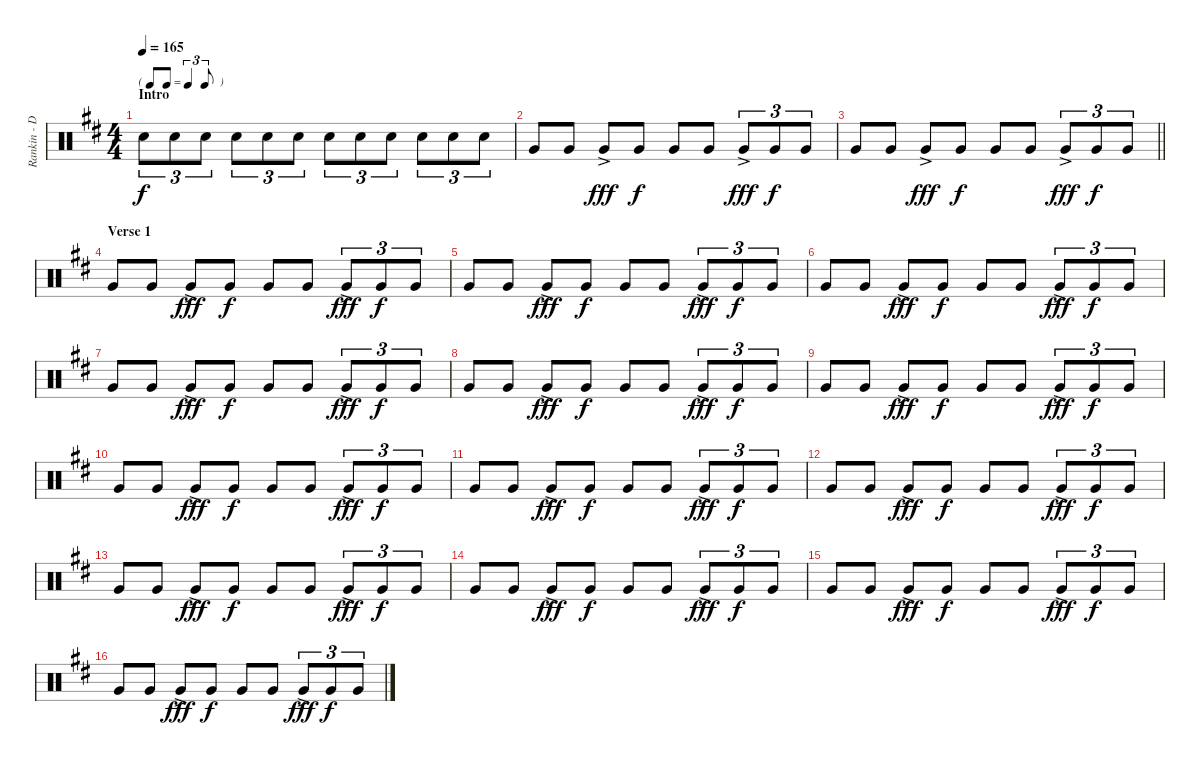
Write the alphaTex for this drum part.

\track ("Rankin - Drums" "Rankin - D") {instrument percussion}
\staff {score}
\articulation defaults
\ts (4 4)
\tf triplet8th
\section ("" "Intro")
\tempo 165
\clef neutral
\ks d "Electric Snare (hit)".8{tu (3 2) dy f} "Electric Snare (hit)".8{tu (3 2)} "Electric Snare (hit)".8{tu (3 2)} "Electric Snare (hit)".8{tu (3 2)} "Electric Snare (hit)".8{tu (3 2)} "Electric Snare (hit)".8{tu (3 2)} "Electric Snare (hit)".8{tu (3 2)} "Electric Snare (hit)".8{tu (3 2)} "Electric Snare (hit)".8{tu (3 2)} "Electric Snare (hit)".8{tu (3 2)} "Electric Snare (hit)".8{tu (3 2)} "Electric Snare (hit)".8{tu (3 2)}
|
"Very Low Tom (hit)".8 "Very Low Tom (hit)".8 "Very Low Tom (hit)"{ac}.8{dy fff} "Very Low Tom (hit)".8{dy f} "Very Low Tom (hit)".8 "Very Low Tom (hit)".8 "Very Low Tom (hit)"{ac}.8{tu (3 2) dy fff} "Very Low Tom (hit)".8{tu (3 2) dy f} "Very Low Tom (hit)".8{tu (3 2)} |
\barLineRight lightlight "Very Low Tom (hit)".8 "Very Low Tom (hit)".8 "Very Low Tom (hit)"{ac}.8{dy fff} "Very Low Tom (hit)".8{dy f} "Very Low Tom (hit)".8 "Very Low Tom (hit)".8 "Very Low Tom (hit)"{ac}.8{tu (3 2) dy fff} "Very Low Tom (hit)".8{tu (3 2) dy f} "Very Low Tom (hit)".8{tu (3 2)}
|
\section ("" "Verse 1")
"Very Low Tom (hit)".8 "Very Low Tom (hit)".8 "Very Low Tom (hit)"{ac}.8{dy fff} "Very Low Tom (hit)".8{dy f} "Very Low Tom (hit)".8 "Very Low Tom (hit)".8 "Very Low Tom (hit)"{ac}.8{tu (3 2) dy fff} "Very Low Tom (hit)".8{tu (3 2) dy f} "Very Low Tom (hit)".8{tu (3 2)} |
"Very Low Tom (hit)".8 "Very Low Tom (hit)".8 "Very Low Tom (hit)"{ac}.8{dy fff} "Very Low Tom (hit)".8{dy f} "Very Low Tom (hit)".8 "Very Low Tom (hit)".8 "Very Low Tom (hit)"{ac}.8{tu (3 2) dy fff} "Very Low Tom (hit)".8{tu (3 2) dy f} "Very Low Tom (hit)".8{tu (3 2)} |
"Very Low Tom (hit)".8 "Very Low Tom (hit)".8 "Very Low Tom (hit)"{ac}.8{dy fff} "Very Low Tom (hit)".8{dy f} "Very Low Tom (hit)".8 "Very Low Tom (hit)".8 "Very Low Tom (hit)"{ac}.8{tu (3 2) dy fff} "Very Low Tom (hit)".8{tu (3 2) dy f} "Very Low Tom (hit)".8{tu (3 2)} |
"Very Low Tom (hit)".8 "Very Low Tom (hit)".8 "Very Low Tom (hit)"{ac}.8{dy fff} "Very Low Tom (hit)".8{dy f} "Very Low Tom (hit)".8 "Very Low Tom (hit)".8 "Very Low Tom (hit)"{ac}.8{tu (3 2) dy fff} "Very Low Tom (hit)".8{tu (3 2) dy f} "Very Low Tom (hit)".8{tu (3 2)} |
"Very Low Tom (hit)".8 "Very Low Tom (hit)".8 "Very Low Tom (hit)"{ac}.8{dy fff} "Very Low Tom (hit)".8{dy f} "Very Low Tom (hit)".8 "Very Low Tom (hit)".8 "Very Low Tom (hit)"{ac}.8{tu (3 2) dy fff} "Very Low Tom (hit)".8{tu (3 2) dy f} "Very Low Tom (hit)".8{tu (3 2)} |
"Very Low Tom (hit)".8 "Very Low Tom (hit)".8 "Very Low Tom (hit)"{ac}.8{dy fff} "Very Low Tom (hit)".8{dy f} "Very Low Tom (hit)".8 "Very Low Tom (hit)".8 "Very Low Tom (hit)"{ac}.8{tu (3 2) dy fff} "Very Low Tom (hit)".8{tu (3 2) dy f} "Very Low Tom (hit)".8{tu (3 2)} |
"Very Low Tom (hit)".8 "Very Low Tom (hit)".8 "Very Low Tom (hit)"{ac}.8{dy fff} "Very Low Tom (hit)".8{dy f} "Very Low Tom (hit)".8 "Very Low Tom (hit)".8 "Very Low Tom (hit)"{ac}.8{tu (3 2) dy fff} "Very Low Tom (hit)".8{tu (3 2) dy f} "Very Low Tom (hit)".8{tu (3 2)} |
"Very Low Tom (hit)".8 "Very Low Tom (hit)".8 "Very Low Tom (hit)"{ac}.8{dy fff} "Very Low Tom (hit)".8{dy f} "Very Low Tom (hit)".8 "Very Low Tom (hit)".8 "Very Low Tom (hit)"{ac}.8{tu (3 2) dy fff} "Very Low Tom (hit)".8{tu (3 2) dy f} "Very Low Tom (hit)".8{tu (3 2)} |
"Very Low Tom (hit)".8 "Very Low Tom (hit)".8 "Very Low Tom (hit)"{ac}.8{dy fff} "Very Low Tom (hit)".8{dy f} "Very Low Tom (hit)".8 "Very Low Tom (hit)".8 "Very Low Tom (hit)"{ac}.8{tu (3 2) dy fff} "Very Low Tom (hit)".8{tu (3 2) dy f} "Very Low Tom (hit)".8{tu (3 2)} |
"Very Low Tom (hit)".8 "Very Low Tom (hit)".8 "Very Low Tom (hit)"{ac}.8{dy fff} "Very Low Tom (hit)".8{dy f} "Very Low Tom (hit)".8 "Very Low Tom (hit)".8 "Very Low Tom (hit)"{ac}.8{tu (3 2) dy fff} "Very Low Tom (hit)".8{tu (3 2) dy f} "Very Low Tom (hit)".8{tu (3 2)} |
"Very Low Tom (hit)".8 "Very Low Tom (hit)".8 "Very Low Tom (hit)"{ac}.8{dy fff} "Very Low Tom (hit)".8{dy f} "Very Low Tom (hit)".8 "Very Low Tom (hit)".8 "Very Low Tom (hit)"{ac}.8{tu (3 2) dy fff} "Very Low Tom (hit)".8{tu (3 2) dy f} "Very Low Tom (hit)".8{tu (3 2)} |
"Very Low Tom (hit)".8 "Very Low Tom (hit)".8 "Very Low Tom (hit)"{ac}.8{dy fff} "Very Low Tom (hit)".8{dy f} "Very Low Tom (hit)".8 "Very Low Tom (hit)".8 "Very Low Tom (hit)"{ac}.8{tu (3 2) dy fff} "Very Low Tom (hit)".8{tu (3 2) dy f} "Very Low Tom (hit)".8{tu (3 2)} |
"Very Low Tom (hit)".8 "Very Low Tom (hit)".8 "Very Low Tom (hit)"{ac}.8{dy fff} "Very Low Tom (hit)".8{dy f} "Very Low Tom (hit)".8 "Very Low Tom (hit)".8 "Very Low Tom (hit)"{ac}.8{tu (3 2) dy fff} "Very Low Tom (hit)".8{tu (3 2) dy f} "Very Low Tom (hit)".8{tu (3 2)}
